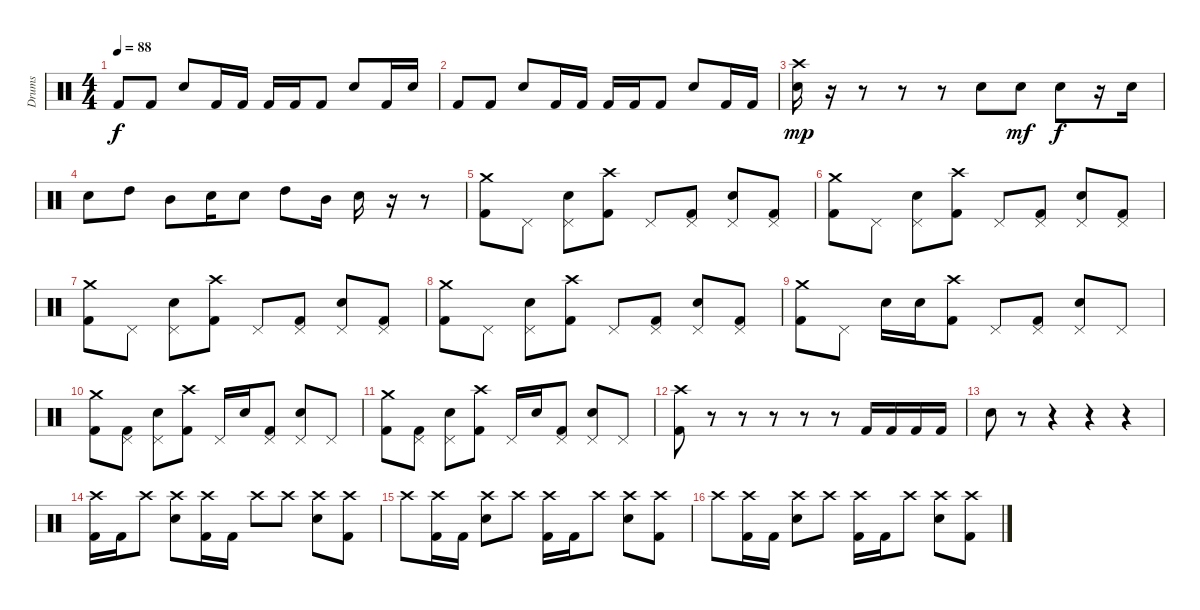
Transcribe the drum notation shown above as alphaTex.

\track ("Drums" "Drums") {instrument percussion}
\staff {score}
\articulation defaults
\ts (4 4)
\tempo 88
\clef neutral
\ks c "Kick (hit) 2".8{dy f} "Kick (hit) 2".8 "Electric Snare (hit)".8 "Kick (hit) 2".16 "Kick (hit) 2".16 "Kick (hit) 2".16 "Kick (hit) 2".16 "Kick (hit) 2".8 "Electric Snare (hit)".8 "Kick (hit) 2".16 "Electric Snare (hit)".16
|
"Kick (hit) 2".8 "Kick (hit) 2".8 "Electric Snare (hit)".8 "Kick (hit) 2".16 "Kick (hit) 2".16 "Kick (hit) 2".16 "Kick (hit) 2".16 "Kick (hit) 2".8 "Electric Snare (hit)".8 "Kick (hit) 2".16 "Kick (hit) 2".16 |
("Crash high (hit)" "Electric Snare (hit)").16{dy mp} r.16 r.8 r.8 r.8 "Electric Snare (hit)".8 "Electric Snare (hit)".8{dy mf} "Electric Snare (hit)".8{dy f} r.16 "Electric Snare (hit)".16 |
"Electric Snare (hit)".8 "High Tom (hit)".8 "Mid Tom (hit)".8 "Electric Snare (hit)".16 "Electric Snare (hit)".8 "High Tom (hit)".8 "Mid Tom (hit)".16 "Electric Snare (hit)".16 r.16 r.8 |
("Crash medium (hit)" "Kick (hit) 2").8 "Pedal Hi-Hat (hit)".8 ("Pedal Hi-Hat (hit)" "Electric Snare (hit)").8 ("Crash high (hit)" "Kick (hit) 2").8 "Pedal Hi-Hat (hit)".8 ("Pedal Hi-Hat (hit)" "Kick (hit) 2").8 ("Pedal Hi-Hat (hit)" "Electric Snare (hit)").8 ("Pedal Hi-Hat (hit)" "Kick (hit) 2").8 |
("Crash medium (hit)" "Kick (hit) 2").8 "Pedal Hi-Hat (hit)".8 ("Pedal Hi-Hat (hit)" "Electric Snare (hit)").8 ("Crash high (hit)" "Kick (hit) 2").8 "Pedal Hi-Hat (hit)".8 ("Pedal Hi-Hat (hit)" "Kick (hit) 2").8 ("Pedal Hi-Hat (hit)" "Electric Snare (hit)").8 ("Pedal Hi-Hat (hit)" "Kick (hit) 2").8 |
("Crash medium (hit)" "Kick (hit) 2").8 "Pedal Hi-Hat (hit)".8 ("Pedal Hi-Hat (hit)" "Electric Snare (hit)").8 ("Crash high (hit)" "Kick (hit) 2").8 "Pedal Hi-Hat (hit)".8 ("Pedal Hi-Hat (hit)" "Kick (hit) 2").8 ("Pedal Hi-Hat (hit)" "Electric Snare (hit)").8 ("Pedal Hi-Hat (hit)" "Kick (hit) 2").8 |
("Crash medium (hit)" "Kick (hit) 2").8 "Pedal Hi-Hat (hit)".8 ("Pedal Hi-Hat (hit)" "Electric Snare (hit)").8 ("Crash high (hit)" "Kick (hit) 2").8 "Pedal Hi-Hat (hit)".8 ("Pedal Hi-Hat (hit)" "Kick (hit) 2").8 ("Pedal Hi-Hat (hit)" "Electric Snare (hit)").8 ("Pedal Hi-Hat (hit)" "Kick (hit) 2").8 |
("Crash medium (hit)" "Kick (hit) 2").8 "Pedal Hi-Hat (hit)".8 "Electric Snare (hit)".16 "Electric Snare (hit)".16 ("Crash high (hit)" "Kick (hit) 2").8 "Pedal Hi-Hat (hit)".8 ("Pedal Hi-Hat (hit)" "Kick (hit) 2").8 ("Pedal Hi-Hat (hit)" "Electric Snare (hit)").8 "Pedal Hi-Hat (hit)".8 |
("Crash medium (hit)" "Kick (hit) 2").8 ("Pedal Hi-Hat (hit)" "Kick (hit) 2").8 ("Pedal Hi-Hat (hit)" "Electric Snare (hit)").8 ("Crash high (hit)" "Kick (hit) 2").8 "Pedal Hi-Hat (hit)".16 "Electric Snare (hit)".16 ("Pedal Hi-Hat (hit)" "Kick (hit) 2").8 ("Pedal Hi-Hat (hit)" "Electric Snare (hit)").8 "Pedal Hi-Hat (hit)".8 |
("Crash medium (hit)" "Kick (hit) 2").8 ("Pedal Hi-Hat (hit)" "Kick (hit) 2").8 ("Pedal Hi-Hat (hit)" "Electric Snare (hit)").8 ("Crash high (hit)" "Kick (hit) 2").8 "Pedal Hi-Hat (hit)".16 "Electric Snare (hit)".16 ("Pedal Hi-Hat (hit)" "Kick (hit) 2").8 ("Pedal Hi-Hat (hit)" "Electric Snare (hit)").8 "Pedal Hi-Hat (hit)".8 |
("Crash high (hit)" "Kick (hit) 2").8 r.8 r.8 r.8 r.8 r.8 "Kick (hit) 2".16 "Kick (hit) 2".16 "Kick (hit) 2".16 "Kick (hit) 2".16 |
"Electric Snare (hit)".8 r.8 r.4 r.4 r.4 |
("Crash high (hit)" "Kick (hit) 2").16 "Kick (hit) 2".16 "Crash high (hit)".8 ("Crash high (hit)" "Electric Snare (hit)").8 ("Crash high (hit)" "Kick (hit) 2").16 "Kick (hit) 2".16 "Crash high (hit)".8 "Crash high (hit)".8 ("Crash high (hit)" "Electric Snare (hit)").8 ("Crash high (hit)" "Kick (hit) 2").8 |
"Crash high (hit)".8 ("Crash high (hit)" "Kick (hit) 2").16 "Kick (hit) 2".16 ("Crash high (hit)" "Electric Snare (hit)").8 "Crash high (hit)".8 ("Crash high (hit)" "Kick (hit) 2").16 "Kick (hit) 2".16 "Crash high (hit)".8 ("Crash high (hit)" "Electric Snare (hit)").8 ("Crash high (hit)" "Kick (hit) 2").8 |
"Crash high (hit)".8 ("Crash high (hit)" "Kick (hit) 2").16 "Kick (hit) 2".16 ("Crash high (hit)" "Electric Snare (hit)").8 "Crash high (hit)".8 ("Crash high (hit)" "Kick (hit) 2").16 "Kick (hit) 2".16 "Crash high (hit)".8 ("Crash high (hit)" "Electric Snare (hit)").8 ("Crash high (hit)" "Kick (hit) 2").8
